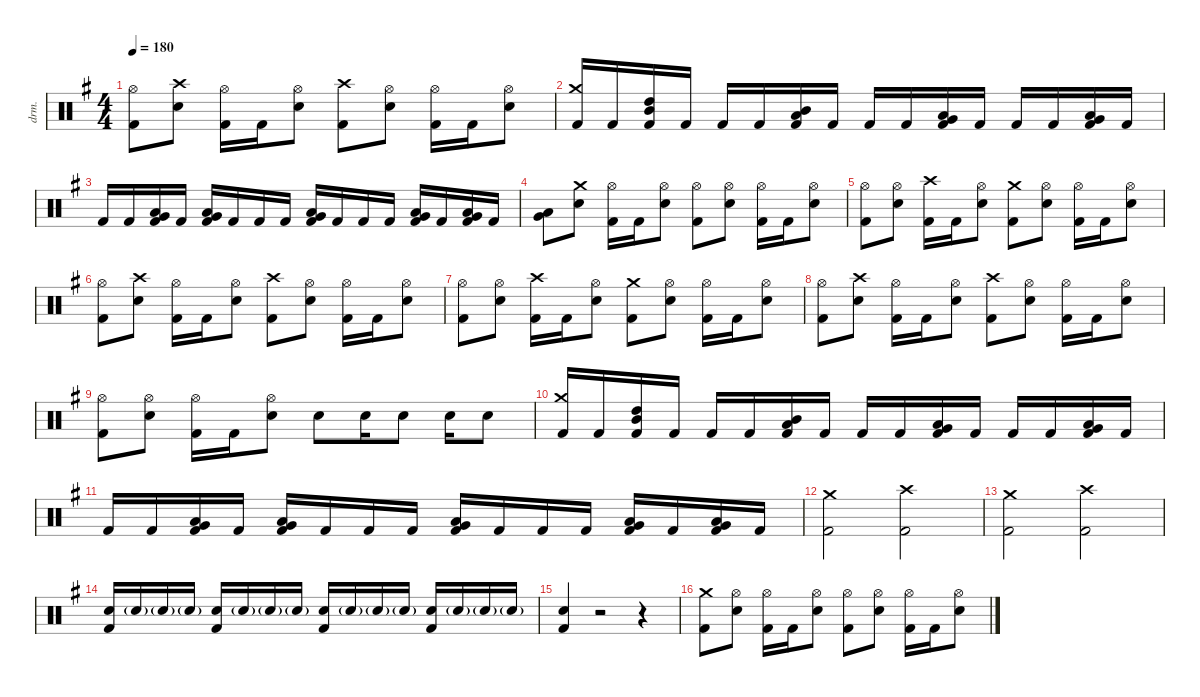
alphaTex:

\defaultSystemsLayout 4
\hideDynamics
\bracketExtendMode nobrackets
\otherSystemsTrackNameOrientation horizontal
\track ("Lars Ulrich" "drm.") {instrument percussion}
\staff {score}
\articulation defaults
\ts (4 4)
\tempo 180
\clef neutral
\ks eminor
("Hi-Hat (open)"{acc forcenatural} "Kick (hit) 2"{acc forcenatural}).8{dy f beam Down} ("Crash high (hit)"{acc forcenatural} "Snare (hit) 2"{acc forcenatural}).8{beam Down} ("Hi-Hat (open)"{acc forcenatural} "Kick (hit) 2"{acc forcenatural}).16{beam Down} "Kick (hit) 2"{acc forcenatural}.16{beam Down} ("Hi-Hat (open)"{acc forcenatural} "Snare (hit) 2"{acc forcenatural}).8{beam Down} ("Crash high (hit)"{acc forcenatural} "Kick (hit) 2"{acc forcenatural}).8{beam Down} ("Hi-Hat (open)"{acc forcenatural} "Snare (hit) 2"{acc forcenatural}).8{beam Down} ("Hi-Hat (open)"{acc forcenatural} "Kick (hit) 2"{acc forcenatural}).16{beam Down} "Kick (hit) 2"{acc forcenatural}.16{beam Down} ("Hi-Hat (open)"{acc forcenatural} "Snare (hit) 2"{acc forcenatural}).8{beam Down} |
("Crash medium (hit)"{acc forcenatural} "Kick (hit) 2"{acc forcenatural}).16{beam Up} "Kick (hit) 2"{acc forcenatural}.16{beam Up} ("High Tom (hit)"{acc forcenatural} "Mid Tom (hit)"{acc forcenatural} "Kick (hit) 2"{acc forcenatural}).16{beam Up} "Kick (hit) 2"{acc forcenatural}.16{beam Up} "Kick (hit) 2"{acc forcenatural}.16{beam Up} "Kick (hit) 2"{acc forcenatural}.16{beam Up} ("Mid Tom (hit)"{acc forcenatural} "Low Tom (hit)"{acc forcenatural} "Kick (hit) 2"{acc forcenatural}).16{beam Up} "Kick (hit) 2"{acc forcenatural}.16{beam Up} "Kick (hit) 2"{acc forcenatural}.16{beam Up} "Kick (hit) 2"{acc forcenatural}.16{beam Up} ("Low Tom (hit)"{acc forcenatural} "Very Low Tom (hit)"{acc forcenatural} "Kick (hit) 2"{acc forcenatural}).16{beam Up} "Kick (hit) 2"{acc forcenatural}.16{beam Up} "Kick (hit) 2"{acc forcenatural}.16{beam Up} "Kick (hit) 2"{acc forcenatural}.16{beam Up} ("Very Low Tom (hit)"{acc forcenatural} "Low Floor Tom (hit)"{acc forcenatural} "Kick (hit) 2"{acc forcenatural}).16{beam Up} "Kick (hit) 2"{acc forcenatural}.16{beam Up} |
"Kick (hit) 2"{acc forcenatural}.16{beam Up} "Kick (hit) 2"{acc forcenatural}.16{beam Up} ("Very Low Tom (hit)"{acc forcenatural} "Low Floor Tom (hit)"{acc forcenatural} "Kick (hit) 2"{acc forcenatural}).16{beam Up} "Kick (hit) 2"{acc forcenatural}.16{beam Up} ("Very Low Tom (hit)"{acc forcenatural} "Low Floor Tom (hit)"{acc forcenatural} "Kick (hit) 2"{acc forcenatural}).16{beam Up} "Kick (hit) 2"{acc forcenatural}.16{beam Up} "Kick (hit) 2"{acc forcenatural}.16{beam Up} "Kick (hit) 2"{acc forcenatural}.16{beam Up} ("Very Low Tom (hit)"{acc forcenatural} "Low Floor Tom (hit)"{acc forcenatural} "Kick (hit) 2"{acc forcenatural}).16{beam Up} "Kick (hit) 2"{acc forcenatural}.16{beam Up} "Kick (hit) 2"{acc forcenatural}.16{beam Up} "Kick (hit) 2"{acc forcenatural}.16{beam Up} ("Very Low Tom (hit)"{acc forcenatural} "Low Floor Tom (hit)"{acc forcenatural} "Kick (hit) 2"{acc forcenatural}).16{beam Up} "Kick (hit) 2"{acc forcenatural}.16{beam Up} ("Very Low Tom (hit)"{acc forcenatural} "Low Floor Tom (hit)"{acc forcenatural} "Kick (hit) 2"{acc forcenatural}).16{beam Up} "Kick (hit) 2"{acc forcenatural}.16{beam Up} |
("Very Low Tom (hit)"{acc forcenatural} "Low Floor Tom (hit)"{acc forcenatural}).8{beam Down} ("Crash medium (hit)"{acc forcenatural} "Snare (hit) 2"{acc forcenatural}).8{beam Down} ("Hi-Hat (open)"{acc forcenatural} "Kick (hit) 2"{acc forcenatural}).16{beam Down} "Kick (hit) 2"{acc forcenatural}.16{beam Down} ("Hi-Hat (open)"{acc forcenatural} "Snare (hit) 2"{acc forcenatural}).8{beam Down} ("Hi-Hat (open)"{acc forcenatural} "Kick (hit) 2"{acc forcenatural}).8{beam Down} ("Hi-Hat (open)"{acc forcenatural} "Snare (hit) 2"{acc forcenatural}).8{beam Down} ("Hi-Hat (open)"{acc forcenatural} "Kick (hit) 2"{acc forcenatural}).16{beam Down} "Kick (hit) 2"{acc forcenatural}.16{beam Down} ("Hi-Hat (open)"{acc forcenatural} "Snare (hit) 2"{acc forcenatural}).8{beam Down} |
("Hi-Hat (open)"{acc forcenatural} "Kick (hit) 2"{acc forcenatural}).8{beam Down} ("Hi-Hat (open)"{acc forcenatural} "Snare (hit) 2"{acc forcenatural}).8{beam Down} ("Crash high (hit)"{acc forcenatural} "Kick (hit) 2"{acc forcenatural}).16{beam Down} "Kick (hit) 2"{acc forcenatural}.16{beam Down} ("Hi-Hat (open)"{acc forcenatural} "Snare (hit) 2"{acc forcenatural}).8{beam Down} ("Crash medium (hit)"{acc forcenatural} "Kick (hit) 2"{acc forcenatural}).8{beam Down} ("Hi-Hat (open)"{acc forcenatural} "Snare (hit) 2"{acc forcenatural}).8{beam Down} ("Hi-Hat (open)"{acc forcenatural} "Kick (hit) 2"{acc forcenatural}).16{beam Down} "Kick (hit) 2"{acc forcenatural}.16{beam Down} ("Hi-Hat (open)"{acc forcenatural} "Snare (hit) 2"{acc forcenatural}).8{beam Down} |
("Hi-Hat (open)"{acc forcenatural} "Kick (hit) 2"{acc forcenatural}).8{beam Down} ("Crash high (hit)"{acc forcenatural} "Snare (hit) 2"{acc forcenatural}).8{beam Down} ("Hi-Hat (open)"{acc forcenatural} "Kick (hit) 2"{acc forcenatural}).16{beam Down} "Kick (hit) 2"{acc forcenatural}.16{beam Down} ("Hi-Hat (open)"{acc forcenatural} "Snare (hit) 2"{acc forcenatural}).8{beam Down} ("Crash high (hit)"{acc forcenatural} "Kick (hit) 2"{acc forcenatural}).8{beam Down} ("Hi-Hat (open)"{acc forcenatural} "Snare (hit) 2"{acc forcenatural}).8{beam Down} ("Hi-Hat (open)"{acc forcenatural} "Kick (hit) 2"{acc forcenatural}).16{beam Down} "Kick (hit) 2"{acc forcenatural}.16{beam Down} ("Hi-Hat (open)"{acc forcenatural} "Snare (hit) 2"{acc forcenatural}).8{beam Down} |
("Hi-Hat (open)"{acc forcenatural} "Kick (hit) 2"{acc forcenatural}).8{beam Down} ("Hi-Hat (open)"{acc forcenatural} "Snare (hit) 2"{acc forcenatural}).8{beam Down} ("Crash high (hit)"{acc forcenatural} "Kick (hit) 2"{acc forcenatural}).16{beam Down} "Kick (hit) 2"{acc forcenatural}.16{beam Down} ("Hi-Hat (open)"{acc forcenatural} "Snare (hit) 2"{acc forcenatural}).8{beam Down} ("Crash medium (hit)"{acc forcenatural} "Kick (hit) 2"{acc forcenatural}).8{beam Down} ("Hi-Hat (open)"{acc forcenatural} "Snare (hit) 2"{acc forcenatural}).8{beam Down} ("Hi-Hat (open)"{acc forcenatural} "Kick (hit) 2"{acc forcenatural}).16{beam Down} "Kick (hit) 2"{acc forcenatural}.16{beam Down} ("Hi-Hat (open)"{acc forcenatural} "Snare (hit) 2"{acc forcenatural}).8{beam Down} |
("Hi-Hat (open)"{acc forcenatural} "Kick (hit) 2"{acc forcenatural}).8{beam Down} ("Crash high (hit)"{acc forcenatural} "Snare (hit) 2"{acc forcenatural}).8{beam Down} ("Hi-Hat (open)"{acc forcenatural} "Kick (hit) 2"{acc forcenatural}).16{beam Down} "Kick (hit) 2"{acc forcenatural}.16{beam Down} ("Hi-Hat (open)"{acc forcenatural} "Snare (hit) 2"{acc forcenatural}).8{beam Down} ("Crash high (hit)"{acc forcenatural} "Kick (hit) 2"{acc forcenatural}).8{beam Down} ("Hi-Hat (open)"{acc forcenatural} "Snare (hit) 2"{acc forcenatural}).8{beam Down} ("Hi-Hat (open)"{acc forcenatural} "Kick (hit) 2"{acc forcenatural}).16{beam Down} "Kick (hit) 2"{acc forcenatural}.16{beam Down} ("Hi-Hat (open)"{acc forcenatural} "Snare (hit) 2"{acc forcenatural}).8{beam Down} |
("Hi-Hat (open)"{acc forcenatural} "Kick (hit) 2"{acc forcenatural}).8{beam Down} ("Hi-Hat (open)"{acc forcenatural} "Snare (hit) 2"{acc forcenatural}).8{beam Down} ("Hi-Hat (open)"{acc forcenatural} "Kick (hit) 2"{acc forcenatural}).16{beam Down} "Kick (hit) 2"{acc forcenatural}.16{beam Down} ("Hi-Hat (open)"{acc forcenatural} "Snare (hit) 2"{acc forcenatural}).8{beam Down} "Snare (hit) 2"{acc forcenatural}.8{beam Down} "Snare (hit) 2"{acc forcenatural}.16{beam Down} "Snare (hit) 2"{acc forcenatural}.8{beam Down} "Snare (hit) 2"{acc forcenatural}.16{beam Down} "Snare (hit) 2"{acc forcenatural}.8{beam Down} |
("Crash medium (hit)"{acc forcenatural} "Kick (hit) 2"{acc forcenatural}).16{beam Up} "Kick (hit) 2"{acc forcenatural}.16{beam Up} ("High Tom (hit)"{acc forcenatural} "Mid Tom (hit)"{acc forcenatural} "Kick (hit) 2"{acc forcenatural}).16{beam Up} "Kick (hit) 2"{acc forcenatural}.16{beam Up} "Kick (hit) 2"{acc forcenatural}.16{beam Up} "Kick (hit) 2"{acc forcenatural}.16{beam Up} ("Mid Tom (hit)"{acc forcenatural} "Low Tom (hit)"{acc forcenatural} "Kick (hit) 2"{acc forcenatural}).16{beam Up} "Kick (hit) 2"{acc forcenatural}.16{beam Up} "Kick (hit) 2"{acc forcenatural}.16{beam Up} "Kick (hit) 2"{acc forcenatural}.16{beam Up} ("Low Tom (hit)"{acc forcenatural} "Very Low Tom (hit)"{acc forcenatural} "Kick (hit) 2"{acc forcenatural}).16{beam Up} "Kick (hit) 2"{acc forcenatural}.16{beam Up} "Kick (hit) 2"{acc forcenatural}.16{beam Up} "Kick (hit) 2"{acc forcenatural}.16{beam Up} ("Very Low Tom (hit)"{acc forcenatural} "Low Floor Tom (hit)"{acc forcenatural} "Kick (hit) 2"{acc forcenatural}).16{beam Up} "Kick (hit) 2"{acc forcenatural}.16{beam Up} |
"Kick (hit) 2"{acc forcenatural}.16{beam Up} "Kick (hit) 2"{acc forcenatural}.16{beam Up} ("Very Low Tom (hit)"{acc forcenatural} "Low Floor Tom (hit)"{acc forcenatural} "Kick (hit) 2"{acc forcenatural}).16{beam Up} "Kick (hit) 2"{acc forcenatural}.16{beam Up} ("Very Low Tom (hit)"{acc forcenatural} "Low Floor Tom (hit)"{acc forcenatural} "Kick (hit) 2"{acc forcenatural}).16{beam Up} "Kick (hit) 2"{acc forcenatural}.16{beam Up} "Kick (hit) 2"{acc forcenatural}.16{beam Up} "Kick (hit) 2"{acc forcenatural}.16{beam Up} ("Very Low Tom (hit)"{acc forcenatural} "Low Floor Tom (hit)"{acc forcenatural} "Kick (hit) 2"{acc forcenatural}).16{beam Up} "Kick (hit) 2"{acc forcenatural}.16{beam Up} "Kick (hit) 2"{acc forcenatural}.16{beam Up} "Kick (hit) 2"{acc forcenatural}.16{beam Up} ("Very Low Tom (hit)"{acc forcenatural} "Low Floor Tom (hit)"{acc forcenatural} "Kick (hit) 2"{acc forcenatural}).16{beam Up} "Kick (hit) 2"{acc forcenatural}.16{beam Up} ("Very Low Tom (hit)"{acc forcenatural} "Low Floor Tom (hit)"{acc forcenatural} "Kick (hit) 2"{acc forcenatural}).16{beam Up} "Kick (hit) 2"{acc forcenatural}.16{beam Up} |
("Crash medium (hit)"{acc forcenatural} "Kick (hit) 2"{acc forcenatural}).2{beam Down} ("Crash high (hit)"{acc forcenatural} "Kick (hit) 2"{acc forcenatural}).2{beam Down} |
("Crash medium (hit)"{acc forcenatural} "Kick (hit) 2"{acc forcenatural}).2{beam Down} ("Crash high (hit)"{acc forcenatural} "Kick (hit) 2"{acc forcenatural}).2{beam Down} |
("Snare (hit) 2"{acc forcenatural} "Kick (hit) 2"{acc forcenatural}).16{beam Up} "Snare (hit) 2"{g acc forcenatural}.16{dy ff beam Up} "Snare (hit) 2"{g acc forcenatural}.16{beam Up} "Snare (hit) 2"{g acc forcenatural}.16{beam Up} ("Snare (hit) 2"{acc forcenatural} "Kick (hit) 2"{acc forcenatural}).16{dy f beam Up} "Snare (hit) 2"{g acc forcenatural}.16{dy ff beam Up} "Snare (hit) 2"{g acc forcenatural}.16{beam Up} "Snare (hit) 2"{g acc forcenatural}.16{beam Up} ("Snare (hit) 2"{acc forcenatural} "Kick (hit) 2"{acc forcenatural}).16{dy f beam Up} "Snare (hit) 2"{g acc forcenatural}.16{dy ff beam Up} "Snare (hit) 2"{g acc forcenatural}.16{beam Up} "Snare (hit) 2"{g acc forcenatural}.16{beam Up} ("Snare (hit) 2"{acc forcenatural} "Kick (hit) 2"{acc forcenatural}).16{dy f beam Up} "Snare (hit) 2"{g acc forcenatural}.16{dy ff beam Up} "Snare (hit) 2"{g acc forcenatural}.16{beam Up} "Snare (hit) 2"{g acc forcenatural}.16{beam Up} |
("Snare (hit) 2"{acc forcenatural} "Kick (hit) 2"{acc forcenatural}).4{dy f beam Up} r.2{beam Up} r.4{beam Up} |
("Crash medium (hit)"{acc forcenatural} "Kick (hit) 2"{acc forcenatural}).8{beam Down} ("Hi-Hat (open)"{acc forcenatural} "Snare (hit) 2"{acc forcenatural}).8{beam Down} ("Hi-Hat (open)"{acc forcenatural} "Kick (hit) 2"{acc forcenatural}).16{beam Down} "Kick (hit) 2"{acc forcenatural}.16{beam Down} ("Hi-Hat (open)"{acc forcenatural} "Snare (hit) 2"{acc forcenatural}).8{beam Down} ("Hi-Hat (open)"{acc forcenatural} "Kick (hit) 2"{acc forcenatural}).8{beam Down} ("Hi-Hat (open)"{acc forcenatural} "Snare (hit) 2"{acc forcenatural}).8{beam Down} ("Hi-Hat (open)"{acc forcenatural} "Kick (hit) 2"{acc forcenatural}).16{beam Down} "Kick (hit) 2"{acc forcenatural}.16{beam Down} ("Hi-Hat (open)"{acc forcenatural} "Snare (hit) 2"{acc forcenatural}).8{beam Down}
